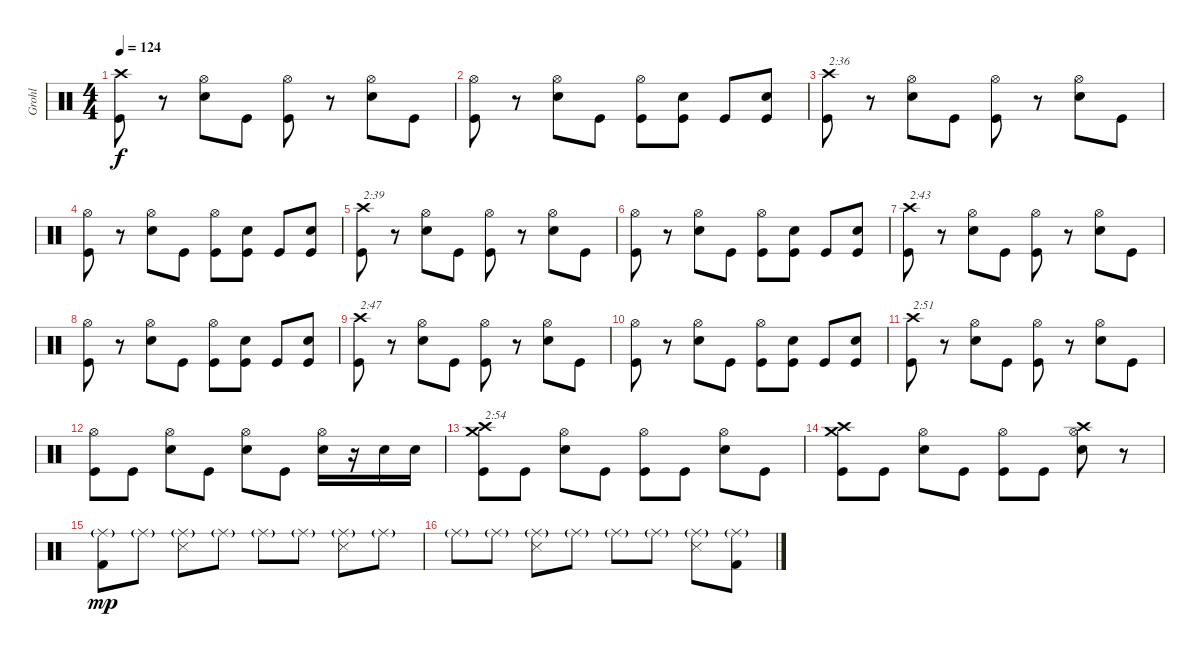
\track ("Grohl" "Grohl") {instrument percussion}
\staff {score}
\articulation defaults
\ts (4 4)
\tempo 124
\clef neutral
\ks c
("Crash high (hit)" "Kick (hit)").8{dy f} r.8 ("Hi-Hat (open)" "Snare (hit) 2").8 "Kick (hit)".8 ("Hi-Hat (open)" "Kick (hit)").8 r.8 ("Hi-Hat (open)" "Snare (hit) 2").8 "Kick (hit)".8 |
("Hi-Hat (open)" "Kick (hit)").8 r.8 ("Hi-Hat (open)" "Snare (hit) 2").8 "Kick (hit)".8 ("Hi-Hat (open)" "Kick (hit)").8 ("Snare (hit) 2" "Kick (hit)").8 "Kick (hit)".8 ("Snare (hit) 2" "Kick (hit)").8 |
("Crash high (hit)" "Kick (hit)").8{txt "2:36"} r.8 ("Hi-Hat (open)" "Snare (hit) 2").8 "Kick (hit)".8 ("Hi-Hat (open)" "Kick (hit)").8 r.8 ("Hi-Hat (open)" "Snare (hit) 2").8 "Kick (hit)".8 |
("Hi-Hat (open)" "Kick (hit)").8 r.8 ("Hi-Hat (open)" "Snare (hit) 2").8 "Kick (hit)".8 ("Hi-Hat (open)" "Kick (hit)").8 ("Snare (hit) 2" "Kick (hit)").8 "Kick (hit)".8 ("Snare (hit) 2" "Kick (hit)").8 |
("Crash high (hit)" "Kick (hit)").8{txt "2:39"} r.8 ("Hi-Hat (open)" "Snare (hit) 2").8 "Kick (hit)".8 ("Hi-Hat (open)" "Kick (hit)").8 r.8 ("Hi-Hat (open)" "Snare (hit) 2").8 "Kick (hit)".8 |
("Hi-Hat (open)" "Kick (hit)").8 r.8 ("Hi-Hat (open)" "Snare (hit) 2").8 "Kick (hit)".8 ("Hi-Hat (open)" "Kick (hit)").8 ("Snare (hit) 2" "Kick (hit)").8 "Kick (hit)".8 ("Snare (hit) 2" "Kick (hit)").8 |
("Crash high (hit)" "Kick (hit)").8{txt "2:43"} r.8 ("Hi-Hat (open)" "Snare (hit) 2").8 "Kick (hit)".8 ("Hi-Hat (open)" "Kick (hit)").8 r.8 ("Hi-Hat (open)" "Snare (hit) 2").8 "Kick (hit)".8 |
("Hi-Hat (open)" "Kick (hit)").8 r.8 ("Hi-Hat (open)" "Snare (hit) 2").8 "Kick (hit)".8 ("Hi-Hat (open)" "Kick (hit)").8 ("Snare (hit) 2" "Kick (hit)").8 "Kick (hit)".8 ("Snare (hit) 2" "Kick (hit)").8 |
("Crash high (hit)" "Kick (hit)").8{txt "2:47"} r.8 ("Hi-Hat (open)" "Snare (hit) 2").8 "Kick (hit)".8 ("Hi-Hat (open)" "Kick (hit)").8 r.8 ("Hi-Hat (open)" "Snare (hit) 2").8 "Kick (hit)".8 |
("Hi-Hat (open)" "Kick (hit)").8 r.8 ("Hi-Hat (open)" "Snare (hit) 2").8 "Kick (hit)".8 ("Hi-Hat (open)" "Kick (hit)").8 ("Snare (hit) 2" "Kick (hit)").8 "Kick (hit)".8 ("Snare (hit) 2" "Kick (hit)").8 |
("Crash high (hit)" "Kick (hit)").8{txt "2:51"} r.8 ("Hi-Hat (open)" "Snare (hit) 2").8 "Kick (hit)".8 ("Hi-Hat (open)" "Kick (hit)").8 r.8 ("Hi-Hat (open)" "Snare (hit) 2").8 "Kick (hit)".8 |
("Hi-Hat (open)" "Kick (hit)").8 "Kick (hit)".8 ("Hi-Hat (open)" "Snare (hit) 2").8 "Kick (hit)".8 ("Hi-Hat (open)" "Snare (hit) 2").8 "Kick (hit)".8 ("Hi-Hat (open)" "Snare (hit) 2").16 r.16 "Snare (hit) 2".16 "Snare (hit) 2".16 |
("Crash high (hit)" "Crash medium (hit)" "Kick (hit)").8{txt "2:54"} "Kick (hit)".8 ("Hi-Hat (open)" "Snare (hit) 2").8 "Kick (hit)".8 ("Hi-Hat (open)" "Kick (hit)").8 "Kick (hit)".8 ("Hi-Hat (open)" "Snare (hit) 2").8 "Kick (hit)".8 |
("Crash high (hit)" "Crash medium (hit)" "Kick (hit)").8 "Kick (hit)".8 ("Hi-Hat (open)" "Snare (hit) 2").8 "Kick (hit)".8 ("Hi-Hat (open)" "Kick (hit)").8 "Kick (hit)".8 ("Hi-Hat (open)" "Crash high (hit)" "Snare (hit) 2").8 r.8 |
("Ride (middle)"{g} "Kick (hit) 2").8{dy mp} "Ride (middle)"{g}.8 ("Ride (middle)"{g} "Snare (side stick) 3").8 "Ride (middle)"{g}.8 "Ride (middle)"{g}.8 "Ride (middle)"{g}.8 ("Ride (middle)"{g} "Snare (side stick) 3").8 "Ride (middle)"{g}.8 |
"Ride (middle)"{g}.8 "Ride (middle)"{g}.8 ("Ride (middle)"{g} "Snare (side stick) 3").8 "Ride (middle)"{g}.8 "Ride (middle)"{g}.8 "Ride (middle)"{g}.8 ("Ride (middle)"{g} "Snare (side stick) 3").8 ("Ride (middle)"{g} "Kick (hit) 2").8
